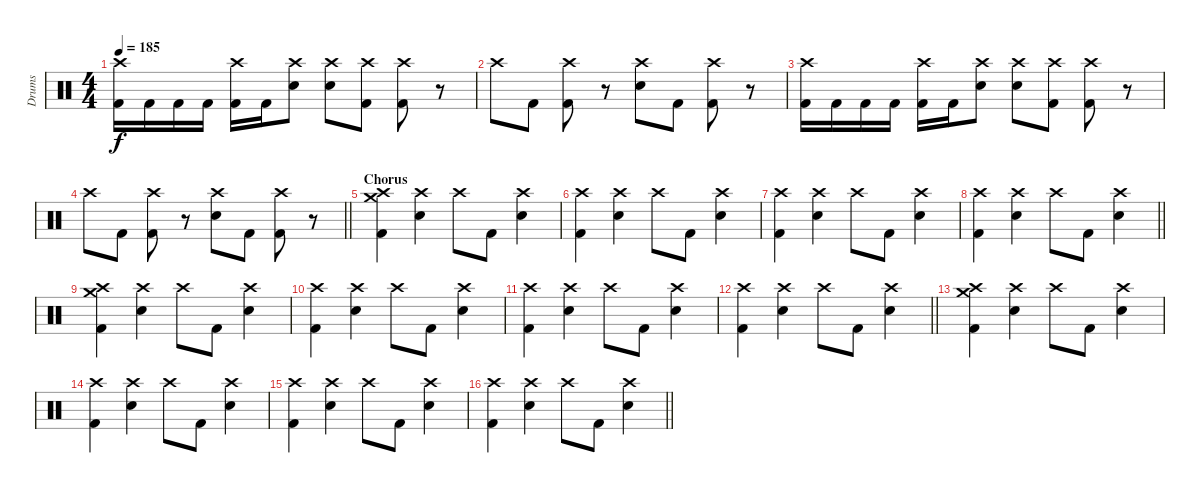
\track ("Drums" "Drums") {instrument percussion}
\staff {score}
\articulation defaults
\ts (4 4)
\tempo 185
\clef neutral
\ks c
("Crash high (hit)" "Kick (hit) 2").16{dy f} "Kick (hit) 2".16 "Kick (hit) 2".16 "Kick (hit) 2".16 ("Crash high (hit)" "Kick (hit) 2").16 "Kick (hit) 2".16 ("Crash high (hit)" "Electric Snare (hit)").8 ("Crash high (hit)" "Electric Snare (hit)").8 ("Crash high (hit)" "Kick (hit) 2").8 ("Crash high (hit)" "Kick (hit) 2").8 r.8 |
"Crash high (hit)".8 "Kick (hit) 2".8 ("Crash high (hit)" "Kick (hit) 2").8 r.8 ("Crash high (hit)" "Electric Snare (hit)").8 "Kick (hit) 2".8 ("Crash high (hit)" "Kick (hit) 2").8 r.8 |
("Crash high (hit)" "Kick (hit) 2").16 "Kick (hit) 2".16 "Kick (hit) 2".16 "Kick (hit) 2".16 ("Crash high (hit)" "Kick (hit) 2").16 "Kick (hit) 2".16 ("Crash high (hit)" "Electric Snare (hit)").8 ("Crash high (hit)" "Electric Snare (hit)").8 ("Crash high (hit)" "Kick (hit) 2").8 ("Crash high (hit)" "Kick (hit) 2").8 r.8 |
\barLineRight lightlight "Crash high (hit)".8 "Kick (hit) 2".8
("Crash high (hit)" "Kick (hit) 2").8 r.8 ("Crash high (hit)" "Electric Snare (hit)").8 "Kick (hit) 2".8 ("Crash high (hit)" "Kick (hit) 2").8 r.8 |
\section ("" "Chorus")
("Crash high (hit)" "Crash medium (hit)" "Kick (hit) 2").4 ("Crash high (hit)" "Electric Snare (hit)").4 "Crash high (hit)".8 "Kick (hit) 2".8 ("Crash high (hit)" "Electric Snare (hit)").4 |
("Crash high (hit)" "Kick (hit) 2").4 ("Crash high (hit)" "Electric Snare (hit)").4 "Crash high (hit)".8 "Kick (hit) 2".8 ("Crash high (hit)" "Electric Snare (hit)").4 |
("Crash high (hit)" "Kick (hit) 2").4 ("Crash high (hit)" "Electric Snare (hit)").4 "Crash high (hit)".8 "Kick (hit) 2".8 ("Crash high (hit)" "Electric Snare (hit)").4 |
\barLineRight lightlight
("Crash high (hit)" "Kick (hit) 2").4 ("Crash high (hit)" "Electric Snare (hit)").4 "Crash high (hit)".8 "Kick (hit) 2".8 ("Crash high (hit)" "Electric Snare (hit)").4 |
("Crash high (hit)" "Crash medium (hit)" "Kick (hit) 2").4 ("Crash high (hit)" "Electric Snare (hit)").4 "Crash high (hit)".8 "Kick (hit) 2".8 ("Crash high (hit)" "Electric Snare (hit)").4 |
("Crash high (hit)" "Kick (hit) 2").4 ("Crash high (hit)" "Electric Snare (hit)").4 "Crash high (hit)".8 "Kick (hit) 2".8 ("Crash high (hit)" "Electric Snare (hit)").4 |
("Crash high (hit)" "Kick (hit) 2").4 ("Crash high (hit)" "Electric Snare (hit)").4 "Crash high (hit)".8 "Kick (hit) 2".8 ("Crash high (hit)" "Electric Snare (hit)").4 |
\barLineRight lightlight
("Crash high (hit)" "Kick (hit) 2").4 ("Crash high (hit)" "Electric Snare (hit)").4 "Crash high (hit)".8 "Kick (hit) 2".8 ("Crash high (hit)" "Electric Snare (hit)").4 |
("Crash high (hit)" "Crash medium (hit)" "Kick (hit) 2").4 ("Crash high (hit)" "Electric Snare (hit)").4 "Crash high (hit)".8 "Kick (hit) 2".8 ("Crash high (hit)" "Electric Snare (hit)").4 |
("Crash high (hit)" "Kick (hit) 2").4 ("Crash high (hit)" "Electric Snare (hit)").4 "Crash high (hit)".8 "Kick (hit) 2".8 ("Crash high (hit)" "Electric Snare (hit)").4 |
("Crash high (hit)" "Kick (hit) 2").4 ("Crash high (hit)" "Electric Snare (hit)").4 "Crash high (hit)".8 "Kick (hit) 2".8 ("Crash high (hit)" "Electric Snare (hit)").4 |
\barLineRight lightlight
("Crash high (hit)" "Kick (hit) 2").4 ("Crash high (hit)" "Electric Snare (hit)").4 "Crash high (hit)".8 "Kick (hit) 2".8 ("Crash high (hit)" "Electric Snare (hit)").4
